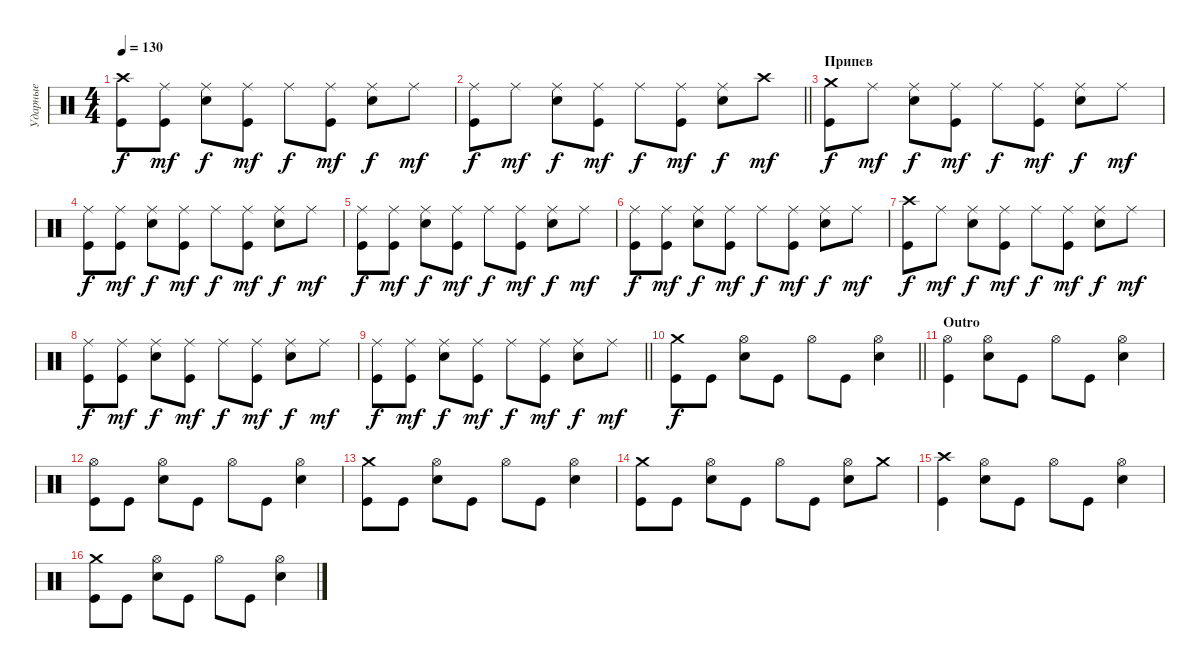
\track ("Ударные" "Ударные") {instrument percussion}
\staff {score}
\articulation defaults
\ts (4 4)
\tempo 130
\clef neutral
\ks c
("Crash high (hit)" "Kick (hit)").8{dy f} ("Ride (middle)" "Kick (hit)").8{dy mf} ("Ride (middle)" "Electric Snare (hit)").8{dy f} ("Ride (middle)" "Kick (hit)").8{dy mf} "Ride (middle)".8{dy f} ("Ride (middle)" "Kick (hit)").8{dy mf} ("Ride (middle)" "Electric Snare (hit)").8{dy f} "Ride (middle)".8{dy mf} |
\barLineRight lightlight
("Ride (middle)" "Kick (hit)").8{dy f} "Ride (middle)".8{dy mf} ("Ride (middle)" "Electric Snare (hit)").8{dy f} ("Ride (middle)" "Kick (hit)").8{dy mf} "Ride (middle)".8{dy f} ("Ride (middle)" "Kick (hit)").8{dy mf} ("Ride (middle)" "Electric Snare (hit)").8{dy f} "Crash high (hit)".8{dy mf} |
\section ("" "Припев")
("Crash medium (hit)" "Kick (hit)").8{dy f} "Ride (middle)".8{dy mf} ("Ride (middle)" "Electric Snare (hit)").8{dy f} ("Ride (middle)" "Kick (hit)").8{dy mf} "Ride (middle)".8{dy f} ("Ride (middle)" "Kick (hit)").8{dy mf} ("Ride (middle)" "Electric Snare (hit)").8{dy f} "Ride (middle)".8{dy mf} |
("Ride (middle)" "Kick (hit)").8{dy f} ("Ride (middle)" "Kick (hit)").8{dy mf} ("Ride (middle)" "Electric Snare (hit)").8{dy f} ("Ride (middle)" "Kick (hit)").8{dy mf} "Ride (middle)".8{dy f} ("Ride (middle)" "Kick (hit)").8{dy mf} ("Ride (middle)" "Electric Snare (hit)").8{dy f} "Ride (middle)".8{dy mf} |
("Ride (middle)" "Kick (hit)").8{dy f} ("Ride (middle)" "Kick (hit)").8{dy mf} ("Ride (middle)" "Electric Snare (hit)").8{dy f} ("Ride (middle)" "Kick (hit)").8{dy mf} "Ride (middle)".8{dy f} ("Ride (middle)" "Kick (hit)").8{dy mf} ("Ride (middle)" "Electric Snare (hit)").8{dy f} "Ride (middle)".8{dy mf} |
("Ride (middle)" "Kick (hit)").8{dy f} ("Ride (middle)" "Kick (hit)").8{dy mf} ("Ride (middle)" "Electric Snare (hit)").8{dy f} ("Ride (middle)" "Kick (hit)").8{dy mf} "Ride (middle)".8{dy f} ("Ride (middle)" "Kick (hit)").8{dy mf} ("Ride (middle)" "Electric Snare (hit)").8{dy f} "Ride (middle)".8{dy mf} |
("Crash high (hit)" "Kick (hit)").8{dy f} "Ride (middle)".8{dy mf} ("Ride (middle)" "Electric Snare (hit)").8{dy f} ("Ride (middle)" "Kick (hit)").8{dy mf} "Ride (middle)".8{dy f} ("Ride (middle)" "Kick (hit)").8{dy mf} ("Ride (middle)" "Electric Snare (hit)").8{dy f} "Ride (middle)".8{dy mf} |
("Ride (middle)" "Kick (hit)").8{dy f} ("Ride (middle)" "Kick (hit)").8{dy mf} ("Ride (middle)" "Electric Snare (hit)").8{dy f} ("Ride (middle)" "Kick (hit)").8{dy mf} "Ride (middle)".8{dy f} ("Ride (middle)" "Kick (hit)").8{dy mf} ("Ride (middle)" "Electric Snare (hit)").8{dy f} "Ride (middle)".8{dy mf} |
\barLineRight lightlight
("Ride (middle)" "Kick (hit)").8{dy f} ("Ride (middle)" "Kick (hit)").8{dy mf} ("Ride (middle)" "Electric Snare (hit)").8{dy f} ("Ride (middle)" "Kick (hit)").8{dy mf} "Ride (middle)".8{dy f} ("Ride (middle)" "Kick (hit)").8{dy mf} ("Ride (middle)" "Electric Snare (hit)").8{dy f} "Ride (middle)".8{dy mf} |
\barLineRight lightlight
("Crash medium (hit)" "Kick (hit)").8{dy f} "Kick (hit)".8 ("Hi-Hat (open)" "Electric Snare (hit)").8 "Kick (hit)".8 "Hi-Hat (open)".8 "Kick (hit)".8 ("Hi-Hat (open)" "Electric Snare (hit)").4 |
\section ("" "Outro")
("Hi-Hat (open)" "Kick (hit)").4 ("Hi-Hat (open)" "Electric Snare (hit)").8 "Kick (hit)".8 "Hi-Hat (open)".8 "Kick (hit)".8 ("Hi-Hat (open)" "Electric Snare (hit)").4 |
("Hi-Hat (open)" "Kick (hit)").8 "Kick (hit)".8 ("Hi-Hat (open)" "Electric Snare (hit)").8 "Kick (hit)".8 "Hi-Hat (open)".8 "Kick (hit)".8 ("Hi-Hat (open)" "Electric Snare (hit)").4 |
("Crash medium (hit)" "Kick (hit)").8 "Kick (hit)".8 ("Hi-Hat (open)" "Electric Snare (hit)").8 "Kick (hit)".8 "Hi-Hat (open)".8 "Kick (hit)".8 ("Hi-Hat (open)" "Electric Snare (hit)").4 |
("Crash medium (hit)" "Kick (hit)").8 "Kick (hit)".8 ("Hi-Hat (open)" "Electric Snare (hit)").8 "Kick (hit)".8 "Hi-Hat (open)".8 "Kick (hit)".8 ("Hi-Hat (open)" "Electric Snare (hit)").8 "Crash medium (hit)".8 |
("Crash high (hit)" "Kick (hit)").4 ("Hi-Hat (open)" "Electric Snare (hit)").8 "Kick (hit)".8 "Hi-Hat (open)".8 "Kick (hit)".8 ("Hi-Hat (open)" "Electric Snare (hit)").4 |
("Crash medium (hit)" "Kick (hit)").8 "Kick (hit)".8 ("Hi-Hat (open)" "Electric Snare (hit)").8 "Kick (hit)".8 "Hi-Hat (open)".8 "Kick (hit)".8 ("Hi-Hat (open)" "Electric Snare (hit)").4
